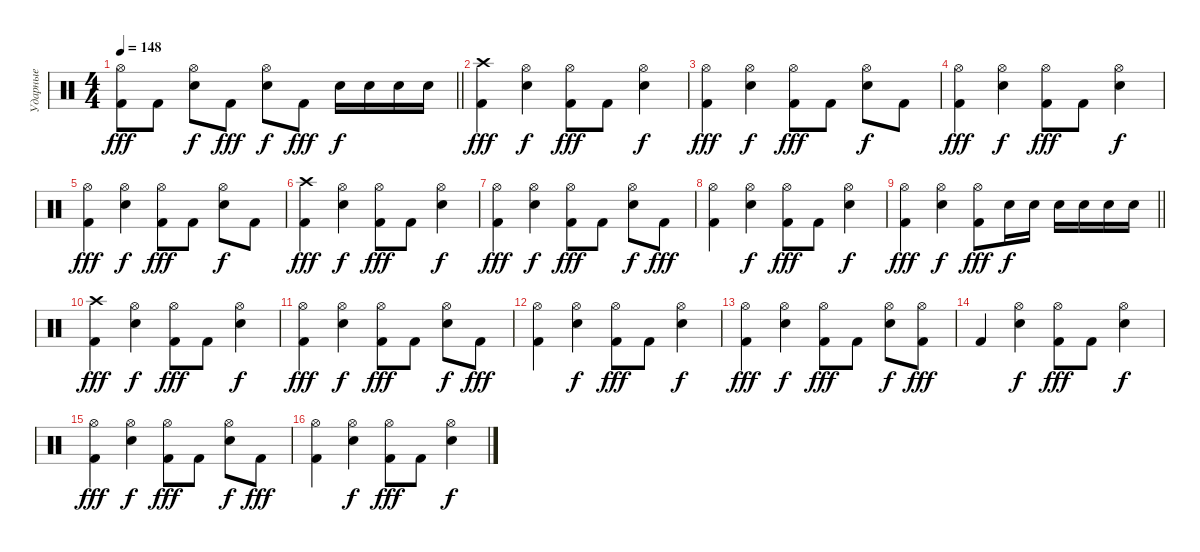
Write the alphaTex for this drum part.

\track ("Ударные" "Ударные") {instrument percussion}
\staff {score}
\articulation defaults
\ts (4 4)
\tempo 148
\clef neutral
\barLineRight lightlight
\ks c
("Kick (hit) 2" "Hi-Hat (open)").8{dy fff} "Kick (hit) 2".8 ("Snare (hit) 2" "Hi-Hat (open)").8{dy f} "Kick (hit) 2".8{dy fff} ("Snare (hit) 2" "Hi-Hat (open)").8{dy f} "Kick (hit) 2".8{dy fff} "Snare (hit) 2".16{dy f} "Snare (hit) 2".16 "Snare (hit) 2".16 "Snare (hit) 2".16 |
("Kick (hit) 2" "Crash high (hit)").4{dy fff} ("Snare (hit) 2" "Hi-Hat (open)").4{dy f} ("Kick (hit) 2" "Hi-Hat (open)").8{dy fff} "Kick (hit) 2".8 ("Snare (hit) 2" "Hi-Hat (open)").4{dy f} |
("Kick (hit) 2" "Hi-Hat (open)").4{dy fff} ("Snare (hit) 2" "Hi-Hat (open)").4{dy f} ("Kick (hit) 2" "Hi-Hat (open)").8{dy fff} "Kick (hit) 2".8 ("Snare (hit) 2" "Hi-Hat (open)").8{dy f} "Kick (hit) 2".8 |
("Kick (hit) 2" "Hi-Hat (open)").4{dy fff} ("Snare (hit) 2" "Hi-Hat (open)").4{dy f} ("Kick (hit) 2" "Hi-Hat (open)").8{dy fff} "Kick (hit) 2".8 ("Snare (hit) 2" "Hi-Hat (open)").4{dy f} |
("Kick (hit) 2" "Hi-Hat (open)").4{dy fff} ("Snare (hit) 2" "Hi-Hat (open)").4{dy f} ("Kick (hit) 2" "Hi-Hat (open)").8{dy fff} "Kick (hit) 2".8 ("Snare (hit) 2" "Hi-Hat (open)").8{dy f} "Kick (hit) 2".8 |
("Kick (hit) 2" "Crash high (hit)").4{dy fff} ("Snare (hit) 2" "Hi-Hat (open)").4{dy f} ("Kick (hit) 2" "Hi-Hat (open)").8{dy fff} "Kick (hit) 2".8 ("Snare (hit) 2" "Hi-Hat (open)").4{dy f} |
("Kick (hit) 2" "Hi-Hat (open)").4{dy fff} ("Snare (hit) 2" "Hi-Hat (open)").4{dy f} ("Kick (hit) 2" "Hi-Hat (open)").8{dy fff} "Kick (hit) 2".8 ("Snare (hit) 2" "Hi-Hat (open)").8{dy f} "Kick (hit) 2".8{dy fff} |
("Kick (hit) 2" "Hi-Hat (open)").4 ("Snare (hit) 2" "Hi-Hat (open)").4{dy f} ("Kick (hit) 2" "Hi-Hat (open)").8{dy fff} "Kick (hit) 2".8 ("Snare (hit) 2" "Hi-Hat (open)").4{dy f} |
\barLineRight lightlight
("Kick (hit) 2" "Hi-Hat (open)").4{dy fff} ("Snare (hit) 2" "Hi-Hat (open)").4{dy f} ("Kick (hit) 2" "Hi-Hat (open)").8{dy fff} "Snare (hit) 2".16{dy f} "Snare (hit) 2".16 "Snare (hit) 2".16 "Snare (hit) 2".16 "Snare (hit) 2".16 "Snare (hit) 2".16 |
("Kick (hit) 2" "Crash high (hit)").4{dy fff} ("Snare (hit) 2" "Hi-Hat (open)").4{dy f} ("Kick (hit) 2" "Hi-Hat (open)").8{dy fff} "Kick (hit) 2".8 ("Snare (hit) 2" "Hi-Hat (open)").4{dy f} |
("Kick (hit) 2" "Hi-Hat (open)").4{dy fff} ("Snare (hit) 2" "Hi-Hat (open)").4{dy f} ("Kick (hit) 2" "Hi-Hat (open)").8{dy fff} "Kick (hit) 2".8 ("Snare (hit) 2" "Hi-Hat (open)").8{dy f} "Kick (hit) 2".8{dy fff} |
("Kick (hit) 2" "Hi-Hat (open)").4 ("Snare (hit) 2" "Hi-Hat (open)").4{dy f} ("Kick (hit) 2" "Hi-Hat (open)").8{dy fff} "Kick (hit) 2".8 ("Snare (hit) 2" "Hi-Hat (open)").4{dy f} |
("Kick (hit) 2" "Hi-Hat (open)").4{dy fff} ("Snare (hit) 2" "Hi-Hat (open)").4{dy f} ("Kick (hit) 2" "Hi-Hat (open)").8{dy fff} "Kick (hit) 2".8 ("Snare (hit) 2" "Hi-Hat (open)").8{dy f} ("Kick (hit) 2" "Hi-Hat (open)").8{dy fff} |
"Kick (hit) 2".4 ("Snare (hit) 2" "Hi-Hat (open)").4{dy f} ("Kick (hit) 2" "Hi-Hat (open)").8{dy fff} "Kick (hit) 2".8 ("Snare (hit) 2" "Hi-Hat (open)").4{dy f} |
("Kick (hit) 2" "Hi-Hat (open)").4{dy fff} ("Snare (hit) 2" "Hi-Hat (open)").4{dy f} ("Kick (hit) 2" "Hi-Hat (open)").8{dy fff} "Kick (hit) 2".8 ("Snare (hit) 2" "Hi-Hat (open)").8{dy f} "Kick (hit) 2".8{dy fff} |
("Kick (hit) 2" "Hi-Hat (open)").4 ("Snare (hit) 2" "Hi-Hat (open)").4{dy f} ("Kick (hit) 2" "Hi-Hat (open)").8{dy fff} "Kick (hit) 2".8 ("Snare (hit) 2" "Hi-Hat (open)").4{dy f}
